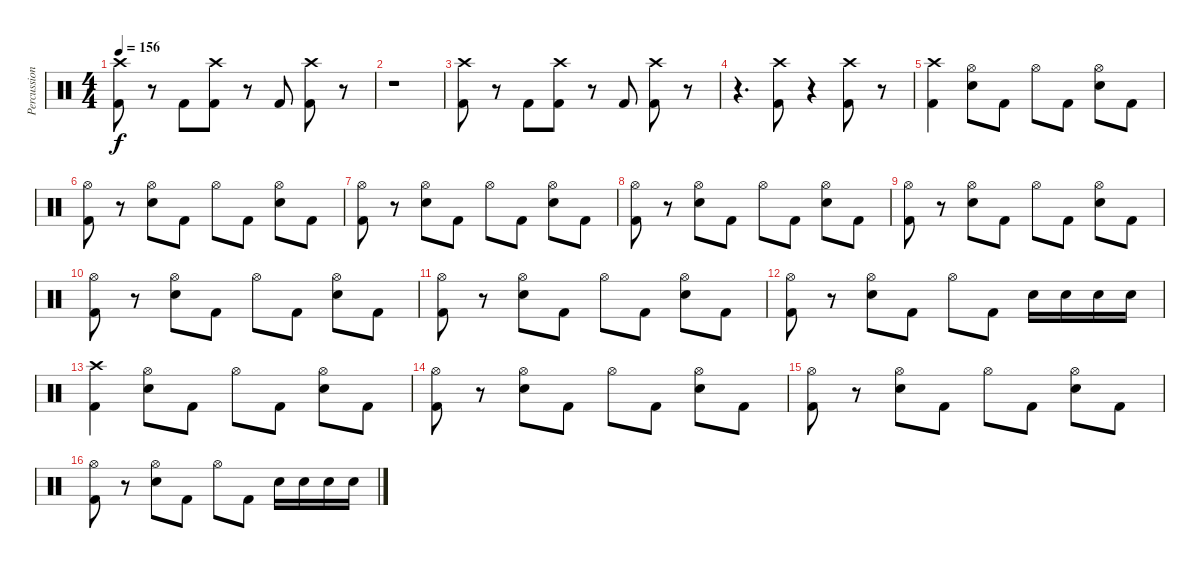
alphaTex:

\track ("Percussion" "Percussion") {instrument percussion}
\staff {score}
\articulation defaults
\ts (4 4)
\tempo 156
\clef neutral
\ks c
("Crash high (hit)" "Kick (hit) 2").8{dy f} r.8 "Kick (hit) 2".8 ("Crash high (hit)" "Kick (hit) 2").8 r.8 "Kick (hit) 2".8 ("Crash high (hit)" "Kick (hit) 2").8 r.8 |
r.1 |
("Crash high (hit)" "Kick (hit) 2").8 r.8 "Kick (hit) 2".8 ("Crash high (hit)" "Kick (hit) 2").8 r.8 "Kick (hit) 2".8 ("Crash high (hit)" "Kick (hit) 2").8 r.8 |
r.4{d} ("Kick (hit) 2" "Crash high (hit)").8 r.4 ("Kick (hit) 2" "Crash high (hit)").8 r.8 |
("Crash high (hit)" "Kick (hit) 2").4 ("Hi-Hat (open)" "Snare (hit) 2").8 "Kick (hit) 2".8 "Hi-Hat (open)".8 "Kick (hit) 2".8 ("Hi-Hat (open)" "Snare (hit) 2").8 "Kick (hit) 2".8 |
("Hi-Hat (open)" "Kick (hit) 2").8 r.8 ("Hi-Hat (open)" "Snare (hit) 2").8 "Kick (hit) 2".8 "Hi-Hat (open)".8 "Kick (hit) 2".8 ("Hi-Hat (open)" "Snare (hit) 2").8 "Kick (hit) 2".8 |
("Hi-Hat (open)" "Kick (hit) 2").8 r.8 ("Hi-Hat (open)" "Snare (hit) 2").8 "Kick (hit) 2".8 "Hi-Hat (open)".8 "Kick (hit) 2".8 ("Hi-Hat (open)" "Snare (hit) 2").8 "Kick (hit) 2".8 |
("Hi-Hat (open)" "Kick (hit) 2").8 r.8 ("Hi-Hat (open)" "Snare (hit) 2").8 "Kick (hit) 2".8 "Hi-Hat (open)".8 "Kick (hit) 2".8 ("Hi-Hat (open)" "Snare (hit) 2").8 "Kick (hit) 2".8 |
("Hi-Hat (open)" "Kick (hit) 2").8 r.8 ("Hi-Hat (open)" "Snare (hit) 2").8 "Kick (hit) 2".8 "Hi-Hat (open)".8 "Kick (hit) 2".8 ("Hi-Hat (open)" "Snare (hit) 2").8 "Kick (hit) 2".8 |
("Hi-Hat (open)" "Kick (hit) 2").8 r.8 ("Hi-Hat (open)" "Snare (hit) 2").8 "Kick (hit) 2".8 "Hi-Hat (open)".8 "Kick (hit) 2".8 ("Hi-Hat (open)" "Snare (hit) 2").8 "Kick (hit) 2".8 |
("Hi-Hat (open)" "Kick (hit) 2").8 r.8 ("Hi-Hat (open)" "Snare (hit) 2").8 "Kick (hit) 2".8 "Hi-Hat (open)".8 "Kick (hit) 2".8 ("Hi-Hat (open)" "Snare (hit) 2").8 "Kick (hit) 2".8 |
("Hi-Hat (open)" "Kick (hit) 2").8 r.8 ("Hi-Hat (open)" "Snare (hit) 2").8 "Kick (hit) 2".8 "Hi-Hat (open)".8 "Kick (hit) 2".8 "Snare (hit) 2".16 "Snare (hit) 2".16 "Snare (hit) 2".16 "Snare (hit) 2".16 |
("Crash high (hit)" "Kick (hit) 2").4 ("Hi-Hat (open)" "Snare (hit) 2").8 "Kick (hit) 2".8 "Hi-Hat (open)".8 "Kick (hit) 2".8 ("Hi-Hat (open)" "Snare (hit) 2").8 "Kick (hit) 2".8 |
("Hi-Hat (open)" "Kick (hit) 2").8 r.8 ("Hi-Hat (open)" "Snare (hit) 2").8 "Kick (hit) 2".8 "Hi-Hat (open)".8 "Kick (hit) 2".8 ("Hi-Hat (open)" "Snare (hit) 2").8 "Kick (hit) 2".8 |
("Hi-Hat (open)" "Kick (hit) 2").8 r.8 ("Hi-Hat (open)" "Snare (hit) 2").8 "Kick (hit) 2".8 "Hi-Hat (open)".8 "Kick (hit) 2".8 ("Hi-Hat (open)" "Snare (hit) 2").8 "Kick (hit) 2".8 |
("Hi-Hat (open)" "Kick (hit) 2").8 r.8 ("Hi-Hat (open)" "Snare (hit) 2").8 "Kick (hit) 2".8 "Hi-Hat (open)".8 "Kick (hit) 2".8 "Snare (hit) 2".16 "Snare (hit) 2".16 "Snare (hit) 2".16 "Snare (hit) 2".16
